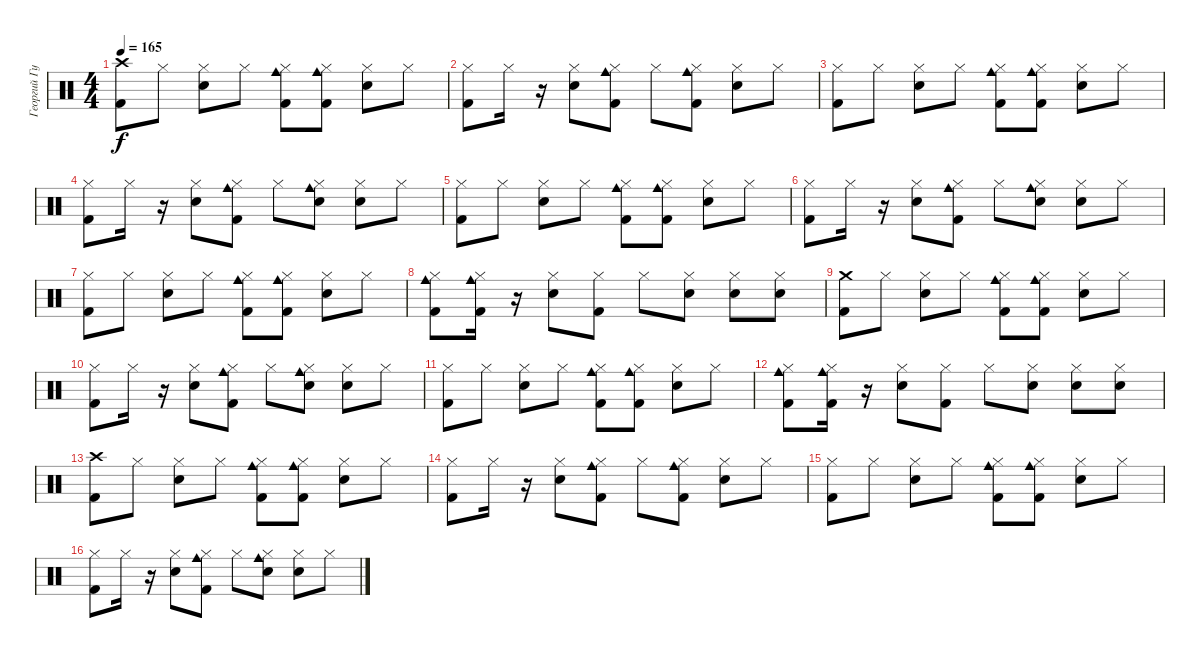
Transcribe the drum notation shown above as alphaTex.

\track ("Георгий Гурьянов" "Георгий Гу") {instrument percussion}
\staff {score}
\articulation defaults
\ts (4 4)
\tempo 165
\clef neutral
\ks c
("Crash high (hit)" "Kick (hit) 2").8{dy f} "Hi-Hat (closed)".8 ("Hi-Hat (closed)" "Snare (hit) 2").8 "Hi-Hat (closed)".8 ("Hi-Hat (closed)" "Cowbell medium (hit)" "Kick (hit) 2").8 ("Hi-Hat (closed)" "Cowbell medium (hit)" "Kick (hit) 2").8 ("Hi-Hat (closed)" "Snare (hit) 2").8 "Hi-Hat (closed)".8 |
("Hi-Hat (closed)" "Kick (hit) 2").8 "Hi-Hat (closed)".16 r.16 ("Hi-Hat (closed)" "Snare (hit) 2").8 ("Hi-Hat (closed)" "Kick (hit) 2" "Cowbell medium (hit)").8 "Hi-Hat (closed)".8 ("Hi-Hat (closed)" "Kick (hit) 2" "Cowbell medium (hit)").8 ("Hi-Hat (closed)" "Snare (hit) 2").8 "Hi-Hat (closed)".8 |
("Hi-Hat (closed)" "Kick (hit) 2").8 "Hi-Hat (closed)".8 ("Hi-Hat (closed)" "Snare (hit) 2").8 "Hi-Hat (closed)".8 ("Hi-Hat (closed)" "Cowbell medium (hit)" "Kick (hit) 2").8 ("Hi-Hat (closed)" "Cowbell medium (hit)" "Kick (hit) 2").8 ("Hi-Hat (closed)" "Snare (hit) 2").8 "Hi-Hat (closed)".8 |
("Hi-Hat (closed)" "Kick (hit) 2").8 "Hi-Hat (closed)".16 r.16 ("Hi-Hat (closed)" "Snare (hit) 2").8 ("Hi-Hat (closed)" "Kick (hit) 2" "Cowbell medium (hit)").8 "Hi-Hat (closed)".8 ("Hi-Hat (closed)" "Hand Clap (hit)" "Cowbell medium (hit)").8 ("Hi-Hat (closed)" "Snare (hit) 2").8 "Hi-Hat (closed)".8 |
("Hi-Hat (closed)" "Kick (hit) 2").8 "Hi-Hat (closed)".8 ("Hi-Hat (closed)" "Snare (hit) 2").8 "Hi-Hat (closed)".8 ("Hi-Hat (closed)" "Cowbell medium (hit)" "Kick (hit) 2").8 ("Hi-Hat (closed)" "Cowbell medium (hit)" "Kick (hit) 2").8 ("Hi-Hat (closed)" "Snare (hit) 2").8 "Hi-Hat (closed)".8 |
("Hi-Hat (closed)" "Kick (hit) 2").8 "Hi-Hat (closed)".16 r.16 ("Hi-Hat (closed)" "Snare (hit) 2").8 ("Hi-Hat (closed)" "Kick (hit) 2" "Cowbell medium (hit)").8 "Hi-Hat (closed)".8 ("Hi-Hat (closed)" "Hand Clap (hit)" "Cowbell medium (hit)").8 ("Hi-Hat (closed)" "Snare (hit) 2").8 "Hi-Hat (closed)".8 |
("Hi-Hat (closed)" "Kick (hit) 2").8 "Hi-Hat (closed)".8 ("Hi-Hat (closed)" "Snare (hit) 2").8 "Hi-Hat (closed)".8 ("Hi-Hat (closed)" "Cowbell medium (hit)" "Kick (hit) 2").8 ("Hi-Hat (closed)" "Cowbell medium (hit)" "Kick (hit) 2").8 ("Hi-Hat (closed)" "Snare (hit) 2").8 "Hi-Hat (closed)".8 |
("Cowbell medium (hit)" "Hi-Hat (closed)" "Kick (hit) 2").8 ("Cowbell medium (hit)" "Kick (hit) 2" "Hi-Hat (closed)").16 r.16 ("Hi-Hat (closed)" "Snare (hit) 2").8 ("Hi-Hat (closed)" "Kick (hit) 2").8 "Hi-Hat (closed)".8 ("Hi-Hat (closed)" "Snare (hit) 2").8 ("Hi-Hat (closed)" "Snare (hit) 2").8 ("Snare (hit) 2" "Hi-Hat (closed)").8 |
("Crash medium (hit)" "Kick (hit) 2").8 "Hi-Hat (closed)".8 ("Hi-Hat (closed)" "Snare (hit) 2").8 "Hi-Hat (closed)".8 ("Hi-Hat (closed)" "Cowbell medium (hit)" "Kick (hit) 2").8 ("Hi-Hat (closed)" "Cowbell medium (hit)" "Kick (hit) 2").8 ("Hi-Hat (closed)" "Snare (hit) 2").8 "Hi-Hat (closed)".8 |
("Hi-Hat (closed)" "Kick (hit) 2").8 "Hi-Hat (closed)".16 r.16 ("Hi-Hat (closed)" "Snare (hit) 2").8 ("Hi-Hat (closed)" "Kick (hit) 2" "Cowbell medium (hit)").8 "Hi-Hat (closed)".8 ("Hi-Hat (closed)" "Hand Clap (hit)" "Cowbell medium (hit)").8 ("Hi-Hat (closed)" "Snare (hit) 2").8 "Hi-Hat (closed)".8 |
("Hi-Hat (closed)" "Kick (hit) 2").8 "Hi-Hat (closed)".8 ("Hi-Hat (closed)" "Snare (hit) 2").8 "Hi-Hat (closed)".8 ("Hi-Hat (closed)" "Cowbell medium (hit)" "Kick (hit) 2").8 ("Hi-Hat (closed)" "Cowbell medium (hit)" "Kick (hit) 2").8 ("Hi-Hat (closed)" "Snare (hit) 2").8 "Hi-Hat (closed)".8 |
("Cowbell medium (hit)" "Hi-Hat (closed)" "Kick (hit) 2").8 ("Cowbell medium (hit)" "Kick (hit) 2" "Hi-Hat (closed)").16 r.16 ("Hi-Hat (closed)" "Snare (hit) 2").8 ("Hi-Hat (closed)" "Kick (hit) 2").8 "Hi-Hat (closed)".8 ("Hi-Hat (closed)" "Snare (hit) 2").8 ("Hi-Hat (closed)" "Snare (hit) 2").8 ("Snare (hit) 2" "Hi-Hat (closed)").8 |
("Crash high (hit)" "Kick (hit) 2").8 "Hi-Hat (closed)".8 ("Hi-Hat (closed)" "Snare (hit) 2").8 "Hi-Hat (closed)".8 ("Hi-Hat (closed)" "Cowbell medium (hit)" "Kick (hit) 2").8 ("Hi-Hat (closed)" "Cowbell medium (hit)" "Kick (hit) 2").8 ("Hi-Hat (closed)" "Snare (hit) 2").8 "Hi-Hat (closed)".8 |
("Hi-Hat (closed)" "Kick (hit) 2").8 "Hi-Hat (closed)".16 r.16 ("Hi-Hat (closed)" "Snare (hit) 2").8 ("Hi-Hat (closed)" "Kick (hit) 2" "Cowbell medium (hit)").8 "Hi-Hat (closed)".8 ("Hi-Hat (closed)" "Kick (hit) 2" "Cowbell medium (hit)").8 ("Hi-Hat (closed)" "Snare (hit) 2").8 "Hi-Hat (closed)".8 |
("Hi-Hat (closed)" "Kick (hit) 2").8 "Hi-Hat (closed)".8 ("Hi-Hat (closed)" "Snare (hit) 2").8 "Hi-Hat (closed)".8 ("Hi-Hat (closed)" "Cowbell medium (hit)" "Kick (hit) 2").8 ("Hi-Hat (closed)" "Cowbell medium (hit)" "Kick (hit) 2").8 ("Hi-Hat (closed)" "Snare (hit) 2").8 "Hi-Hat (closed)".8 |
("Hi-Hat (closed)" "Kick (hit) 2").8 "Hi-Hat (closed)".16 r.16 ("Hi-Hat (closed)" "Snare (hit) 2").8 ("Hi-Hat (closed)" "Kick (hit) 2" "Cowbell medium (hit)").8 "Hi-Hat (closed)".8 ("Hi-Hat (closed)" "Hand Clap (hit)" "Cowbell medium (hit)").8 ("Hi-Hat (closed)" "Snare (hit) 2").8 "Hi-Hat (closed)".8
